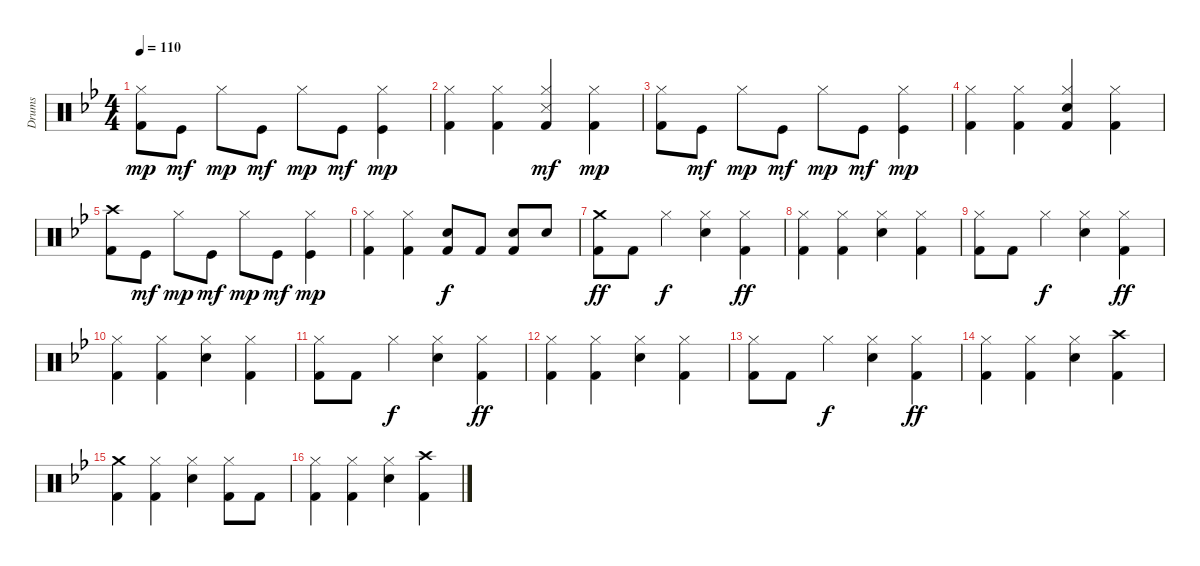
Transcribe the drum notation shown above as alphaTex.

\track ("Drums" "Drums") {instrument percussion}
\staff {score}
\articulation defaults
\ts (4 4)
\tempo 110
\clef neutral
\ks gminor
("Kick (hit) 2" "Hi-Hat (closed)").8{dy mp} "Kick (hit)".8{dy mf} "Hi-Hat (closed)".8{dy mp} "Kick (hit)".8{dy mf} "Hi-Hat (closed)".8{dy mp} "Kick (hit)".8{dy mf} ("Kick (hit)" "Hi-Hat (closed)").4{dy mp} |
("Kick (hit) 2" "Hi-Hat (closed)").4 ("Kick (hit) 2" "Hi-Hat (closed)").4 ("Kick (hit) 2" "Hi-Hat (closed)" "Snare (side stick) 3").4{dy mf} ("Kick (hit) 2" "Hi-Hat (closed)").4{dy mp} |
("Kick (hit) 2" "Hi-Hat (closed)").8 "Kick (hit)".8{dy mf} "Hi-Hat (closed)".8{dy mp} "Kick (hit)".8{dy mf} "Hi-Hat (closed)".8{dy mp} "Kick (hit)".8{dy mf} ("Kick (hit)" "Hi-Hat (closed)").4{dy mp} |
("Kick (hit) 2" "Hi-Hat (closed)").4 ("Kick (hit) 2" "Hi-Hat (closed)").4 ("Kick (hit) 2" "Electric Snare (hit)" "Hi-Hat (closed)").4 ("Kick (hit) 2" "Hi-Hat (closed)").4 |
("Kick (hit) 2" "Crash high (hit)").8 "Kick (hit)".8{dy mf} "Hi-Hat (closed)".8{dy mp} "Kick (hit)".8{dy mf} "Hi-Hat (closed)".8{dy mp} "Kick (hit)".8{dy mf} ("Kick (hit)" "Hi-Hat (closed)").4{dy mp} |
("Kick (hit) 2" "Hi-Hat (closed)").4 ("Kick (hit) 2" "Hi-Hat (closed)").4 ("Kick (hit) 2" "Electric Snare (hit)").8{dy f} "Kick (hit) 2".8 ("Kick (hit) 2" "Electric Snare (hit)").8 "Electric Snare (hit)".8 |
("Kick (hit) 2" "Crash medium (hit)").8{dy ff} "Kick (hit) 2".8 "Hi-Hat (closed)".4{dy f} ("Hi-Hat (closed)" "Electric Snare (hit)").4 ("Hi-Hat (closed)" "Kick (hit) 2").4{dy ff} |
("Kick (hit) 2" "Hi-Hat (closed)").4 ("Kick (hit) 2" "Hi-Hat (closed)").4 ("Hi-Hat (closed)" "Electric Snare (hit)").4 ("Hi-Hat (closed)" "Kick (hit) 2").4 |
("Kick (hit) 2" "Hi-Hat (closed)").8 "Kick (hit) 2".8 "Hi-Hat (closed)".4{dy f} ("Hi-Hat (closed)" "Electric Snare (hit)").4 ("Hi-Hat (closed)" "Kick (hit) 2").4{dy ff} |
("Kick (hit) 2" "Hi-Hat (closed)").4 ("Kick (hit) 2" "Hi-Hat (closed)").4 ("Hi-Hat (closed)" "Electric Snare (hit)").4 ("Hi-Hat (closed)" "Kick (hit) 2").4 |
("Kick (hit) 2" "Hi-Hat (closed)").8 "Kick (hit) 2".8 "Hi-Hat (closed)".4{dy f} ("Hi-Hat (closed)" "Electric Snare (hit)").4 ("Hi-Hat (closed)" "Kick (hit) 2").4{dy ff} |
("Kick (hit) 2" "Hi-Hat (closed)").4 ("Kick (hit) 2" "Hi-Hat (closed)").4 ("Hi-Hat (closed)" "Electric Snare (hit)").4 ("Hi-Hat (closed)" "Kick (hit) 2").4 |
("Kick (hit) 2" "Hi-Hat (closed)").8 "Kick (hit) 2".8 "Hi-Hat (closed)".4{dy f} ("Hi-Hat (closed)" "Electric Snare (hit)").4 ("Hi-Hat (closed)" "Kick (hit) 2").4{dy ff} |
("Kick (hit) 2" "Hi-Hat (closed)").4 ("Kick (hit) 2" "Hi-Hat (closed)").4 ("Hi-Hat (closed)" "Electric Snare (hit)").4 ("Crash high (hit)" "Kick (hit) 2").4 |
("Kick (hit) 2" "Crash medium (hit)").4 ("Kick (hit) 2" "Hi-Hat (closed)").4 ("Hi-Hat (closed)" "Electric Snare (hit)").4 ("Hi-Hat (closed)" "Kick (hit) 2").8 "Kick (hit) 2".8 |
("Kick (hit) 2" "Hi-Hat (closed)").4 ("Kick (hit) 2" "Hi-Hat (closed)").4 ("Hi-Hat (closed)" "Electric Snare (hit)").4 ("Crash high (hit)" "Kick (hit) 2").4
